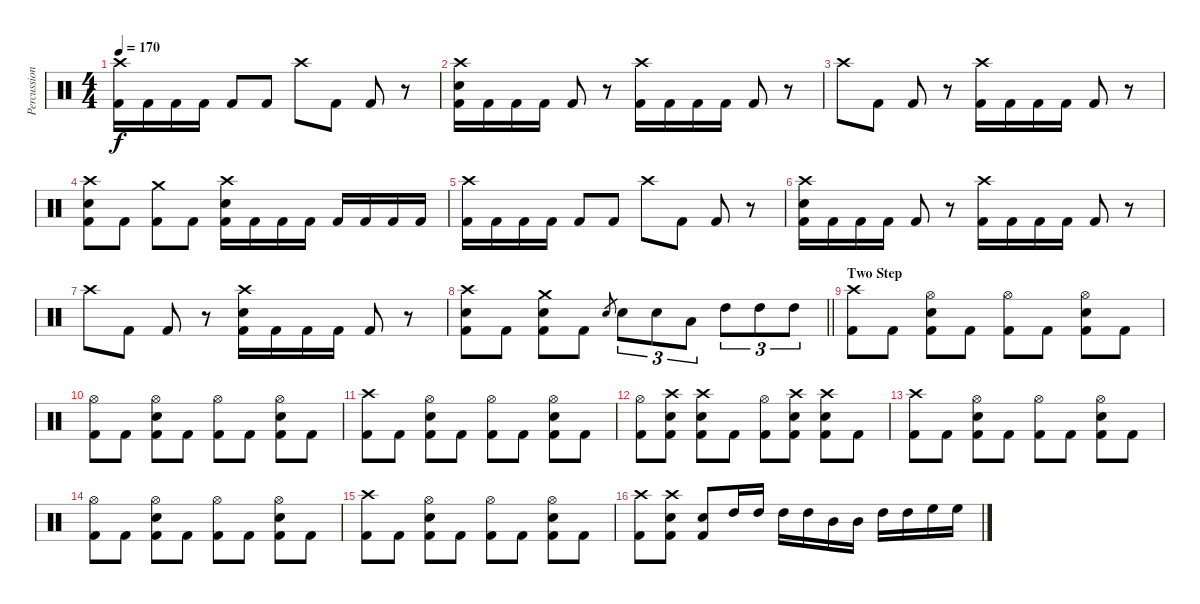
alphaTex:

\track ("Percussion" "Percussion") {instrument percussion}
\staff {score}
\articulation defaults
\ts (4 4)
\tempo 170
\clef neutral
\ks c
("Crash high (hit)" "Kick (hit) 2").16{dy f} "Kick (hit) 2".16 "Kick (hit) 2".16 "Kick (hit) 2".16 "Kick (hit) 2".8 "Kick (hit) 2".8 "Crash high (hit)".8 "Kick (hit) 2".8 "Kick (hit) 2".8 r.8 |
("Crash high (hit)" "Snare (hit) 2" "Kick (hit) 2").16 "Kick (hit) 2".16 "Kick (hit) 2".16 "Kick (hit) 2".16 "Kick (hit) 2".8 r.8 ("Crash high (hit)" "Kick (hit) 2").16 "Kick (hit) 2".16 "Kick (hit) 2".16 "Kick (hit) 2".16 "Kick (hit) 2".8 r.8 |
"Crash high (hit)".8 "Kick (hit) 2".8 "Kick (hit) 2".8 r.8 ("Crash high (hit)" "Kick (hit) 2").16 "Kick (hit) 2".16 "Kick (hit) 2".16 "Kick (hit) 2".16 "Kick (hit) 2".8 r.8 |
("Crash high (hit)" "Snare (hit) 2" "Kick (hit) 2").8 "Kick (hit) 2".8 ("Crash medium (hit)" "Kick (hit) 2").8 "Kick (hit) 2".8 ("Crash high (hit)" "Snare (hit) 2" "Kick (hit) 2").16 "Kick (hit) 2".16 "Kick (hit) 2".16 "Kick (hit) 2".16 "Kick (hit) 2".16 "Kick (hit) 2".16 "Kick (hit) 2".16 "Kick (hit) 2".16 |
("Crash high (hit)" "Kick (hit) 2").16 "Kick (hit) 2".16 "Kick (hit) 2".16 "Kick (hit) 2".16 "Kick (hit) 2".8 "Kick (hit) 2".8 "Crash high (hit)".8 "Kick (hit) 2".8 "Kick (hit) 2".8 r.8 |
("Crash high (hit)" "Snare (hit) 2" "Kick (hit) 2").16 "Kick (hit) 2".16 "Kick (hit) 2".16 "Kick (hit) 2".16 "Kick (hit) 2".8 r.8 ("Crash high (hit)" "Kick (hit) 2").16 "Kick (hit) 2".16 "Kick (hit) 2".16 "Kick (hit) 2".16 "Kick (hit) 2".8 r.8 |
"Crash high (hit)".8 "Kick (hit) 2".8 "Kick (hit) 2".8 r.8 ("Crash high (hit)" "Snare (hit) 2" "Kick (hit) 2").16 "Kick (hit) 2".16 "Kick (hit) 2".16 "Kick (hit) 2".16 "Kick (hit) 2".8 r.8 |
\barLineRight lightlight
("Crash high (hit)" "Snare (hit) 2" "Kick (hit) 2").8 "Kick (hit) 2".8 ("Crash medium (hit)" "Snare (hit) 2" "Kick (hit) 2").8 "Kick (hit) 2".8 "Snare (hit) 2".8{gr} "Snare (hit) 2".8{tu (3 2)} "Snare (hit) 2".8{tu (3 2)} "Low Tom (hit)".8{tu (3 2)} "High Tom (hit)".8{tu (3 2)} "High Tom (hit)".8{tu (3 2)} "High Tom (hit)".8{tu (3 2)} |
\section ("" "Two Step")
("Crash high (hit)" "Kick (hit) 2").8 "Kick (hit) 2".8 ("Hi-Hat (open)" "Snare (hit) 2" "Kick (hit) 2").8 "Kick (hit) 2".8 ("Hi-Hat (open)" "Kick (hit) 2").8 "Kick (hit) 2".8 ("Hi-Hat (open)" "Snare (hit) 2" "Kick (hit) 2").8 "Kick (hit) 2".8 |
("Hi-Hat (open)" "Kick (hit) 2").8 "Kick (hit) 2".8 ("Hi-Hat (open)" "Snare (hit) 2" "Kick (hit) 2").8 "Kick (hit) 2".8 ("Hi-Hat (open)" "Kick (hit) 2").8 "Kick (hit) 2".8 ("Hi-Hat (open)" "Snare (hit) 2" "Kick (hit) 2").8 "Kick (hit) 2".8 |
("Crash high (hit)" "Kick (hit) 2").8 "Kick (hit) 2".8 ("Hi-Hat (open)" "Snare (hit) 2" "Kick (hit) 2").8 "Kick (hit) 2".8 ("Hi-Hat (open)" "Kick (hit) 2").8 "Kick (hit) 2".8 ("Hi-Hat (open)" "Snare (hit) 2" "Kick (hit) 2").8 "Kick (hit) 2".8 |
("Hi-Hat (open)" "Kick (hit) 2").8 ("Crash high (hit)" "Snare (hit) 2" "Kick (hit) 2").8 ("Crash high (hit)" "Snare (hit) 2" "Kick (hit) 2").8 "Kick (hit) 2".8 ("Hi-Hat (open)" "Kick (hit) 2").8 ("Crash high (hit)" "Snare (hit) 2" "Kick (hit) 2").8 ("Crash high (hit)" "Snare (hit) 2" "Kick (hit) 2").8 "Kick (hit) 2".8 |
("Crash high (hit)" "Kick (hit) 2").8 "Kick (hit) 2".8 ("Hi-Hat (open)" "Snare (hit) 2" "Kick (hit) 2").8 "Kick (hit) 2".8 ("Hi-Hat (open)" "Kick (hit) 2").8 "Kick (hit) 2".8 ("Hi-Hat (open)" "Snare (hit) 2" "Kick (hit) 2").8 "Kick (hit) 2".8 |
("Hi-Hat (open)" "Kick (hit) 2").8 "Kick (hit) 2".8 ("Hi-Hat (open)" "Snare (hit) 2" "Kick (hit) 2").8 "Kick (hit) 2".8 ("Hi-Hat (open)" "Kick (hit) 2").8 "Kick (hit) 2".8 ("Hi-Hat (open)" "Snare (hit) 2" "Kick (hit) 2").8 "Kick (hit) 2".8 |
("Crash high (hit)" "Kick (hit) 2").8 "Kick (hit) 2".8 ("Hi-Hat (open)" "Snare (hit) 2" "Kick (hit) 2").8 "Kick (hit) 2".8 ("Hi-Hat (open)" "Kick (hit) 2").8 "Kick (hit) 2".8 ("Hi-Hat (open)" "Snare (hit) 2" "Kick (hit) 2").8 "Kick (hit) 2".8 |
("Crash high (hit)" "Kick (hit) 2").8 ("Crash high (hit)" "Snare (hit) 2" "Kick (hit) 2").8 ("Snare (hit) 2" "Kick (hit) 2").8 "High Tom (hit)".16 "High Tom (hit)".16 "High Tom (hit)".16 "High Tom (hit)".16 "Mid Tom (hit)".16 "Mid Tom (hit)".16 "High Tom (hit)".16 "High Tom (hit)".16 "High Floor Tom (hit)".16 "High Floor Tom (hit)".16
